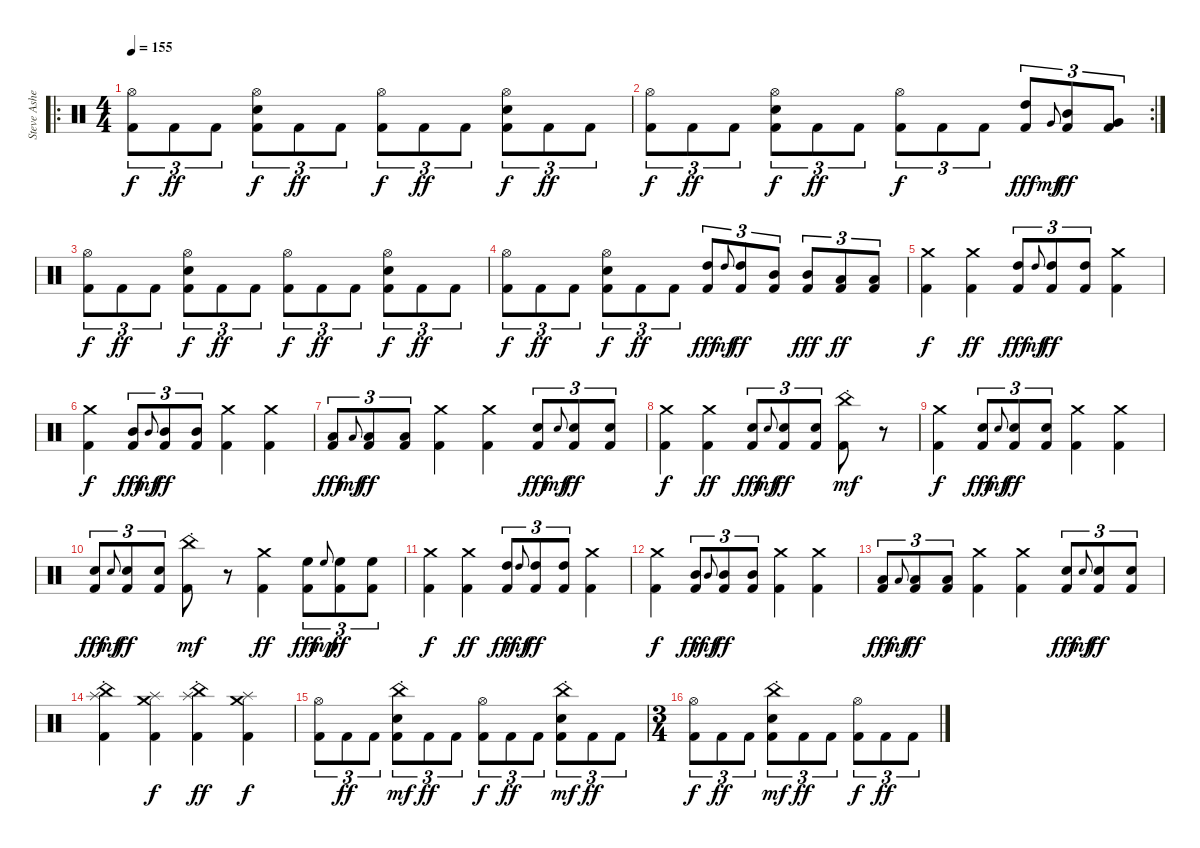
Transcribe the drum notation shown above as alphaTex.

\track ("Steve Asheim " "Steve Ashe") {instrument percussion}
\staff {score}
\articulation defaults
\ro
\ts (4 4)
\tempo 155
\clef neutral
\ks c
("Hi-Hat (open)" "Kick (hit) 2").8{tu (3 2) dy f} "Kick (hit) 2".8{tu (3 2) dy ff} "Kick (hit) 2".8{tu (3 2)} ("Electric Snare (hit)" "Hi-Hat (open)" "Kick (hit) 2").8{tu (3 2) dy f} "Kick (hit) 2".8{tu (3 2) dy ff} "Kick (hit) 2".8{tu (3 2)} ("Hi-Hat (open)" "Kick (hit) 2").8{tu (3 2) dy f} "Kick (hit) 2".8{tu (3 2) dy ff} "Kick (hit) 2".8{tu (3 2)} ("Electric Snare (hit)" "Hi-Hat (open)" "Kick (hit) 2").8{tu (3 2) dy f} "Kick (hit) 2".8{tu (3 2) dy ff} "Kick (hit) 2".8{tu (3 2)} |
\rc 2
("Hi-Hat (open)" "Kick (hit) 2").8{tu (3 2) dy f} "Kick (hit) 2".8{tu (3 2) dy ff} "Kick (hit) 2".8{tu (3 2)} ("Electric Snare (hit)" "Hi-Hat (open)" "Kick (hit) 2").8{tu (3 2) dy f} "Kick (hit) 2".8{tu (3 2) dy ff} "Kick (hit) 2".8{tu (3 2)} ("Hi-Hat (open)" "Kick (hit) 2").8{tu (3 2) dy f} "Kick (hit) 2".8{tu (3 2)} "Kick (hit) 2".8{tu (3 2)} ("High Tom (hit)" "Kick (hit) 2").8{tu (3 2) dy fff} "Very Low Tom (hit)".8{gr onbeat dy mf} ("Mid Tom (hit)" "Kick (hit) 2").8{tu (3 2) dy ff} ("Very Low Tom (hit)" "Kick (hit) 2").8{tu (3 2)} |
("Hi-Hat (open)" "Kick (hit) 2").8{tu (3 2) dy f} "Kick (hit) 2".8{tu (3 2) dy ff} "Kick (hit) 2".8{tu (3 2)} ("Electric Snare (hit)" "Hi-Hat (open)" "Kick (hit) 2").8{tu (3 2) dy f} "Kick (hit) 2".8{tu (3 2) dy ff} "Kick (hit) 2".8{tu (3 2)} ("Hi-Hat (open)" "Kick (hit) 2").8{tu (3 2) dy f} "Kick (hit) 2".8{tu (3 2) dy ff} "Kick (hit) 2".8{tu (3 2)} ("Electric Snare (hit)" "Hi-Hat (open)" "Kick (hit) 2").8{tu (3 2) dy f} "Kick (hit) 2".8{tu (3 2) dy ff} "Kick (hit) 2".8{tu (3 2)} |
("Hi-Hat (open)" "Kick (hit) 2").8{tu (3 2) dy f} "Kick (hit) 2".8{tu (3 2) dy ff} "Kick (hit) 2".8{tu (3 2)} ("Electric Snare (hit)" "Hi-Hat (open)" "Kick (hit) 2").8{tu (3 2) dy f} "Kick (hit) 2".8{tu (3 2) dy ff} "Kick (hit) 2".8{tu (3 2)} ("High Tom (hit)" "Kick (hit) 2").8{tu (3 2) dy fff} "High Tom (hit)".8{gr onbeat dy mf} ("High Tom (hit)" "Kick (hit) 2").8{tu (3 2) dy ff} ("Mid Tom (hit)" "Kick (hit) 2").8{tu (3 2)} ("Mid Tom (hit)" "Kick (hit) 2").8{tu (3 2) dy fff} ("Low Tom (hit)" "Kick (hit) 2").8{tu (3 2) dy ff} ("Low Tom (hit)" "Kick (hit) 2").8{tu (3 2)} |
("Crash medium (hit)" "Kick (hit) 2").4{dy f} ("Crash medium (hit)" "Kick (hit) 2").4{dy ff} ("High Tom (hit)" "Kick (hit) 2").8{tu (3 2) dy fff} "High Tom (hit)".8{gr onbeat dy mf} ("High Tom (hit)" "Kick (hit) 2").8{tu (3 2) dy ff} ("High Tom (hit)" "Kick (hit) 2").8{tu (3 2)} ("Crash medium (hit)" "Kick (hit) 2").4 |
("Crash medium (hit)" "Kick (hit) 2").4{dy f} ("Mid Tom (hit)" "Kick (hit) 2").8{tu (3 2) dy fff} "Mid Tom (hit)".8{gr onbeat dy mf} ("Mid Tom (hit)" "Kick (hit) 2").8{tu (3 2) dy ff} ("Mid Tom (hit)" "Kick (hit) 2").8{tu (3 2)} ("Crash medium (hit)" "Kick (hit) 2").4 ("Crash medium (hit)" "Kick (hit) 2").4 |
("Low Tom (hit)" "Kick (hit) 2").8{tu (3 2) dy fff} "Low Tom (hit)".8{gr onbeat dy mf} ("Low Tom (hit)" "Kick (hit) 2").8{tu (3 2) dy ff} ("Low Tom (hit)" "Kick (hit) 2").8{tu (3 2)} ("Crash medium (hit)" "Kick (hit) 2").4 ("Crash medium (hit)" "Kick (hit) 2").4 ("Electric Snare (hit)" "Kick (hit) 2").8{tu (3 2) dy fff} "Electric Snare (hit)".8{gr onbeat dy mf} ("Electric Snare (hit)" "Kick (hit) 2").8{tu (3 2) dy ff} ("Electric Snare (hit)" "Kick (hit) 2").8{tu (3 2)} |
("Crash medium (hit)" "Kick (hit) 2").4{dy f} ("Crash medium (hit)" "Kick (hit) 2").4{dy ff} ("Electric Snare (hit)" "Kick (hit) 2").8{tu (3 2) dy fff} "Electric Snare (hit)".8{gr onbeat dy mf} ("Electric Snare (hit)" "Kick (hit) 2").8{tu (3 2) dy ff} ("Electric Snare (hit)" "Kick (hit) 2").8{tu (3 2)} ("China (hit)"{st} "Kick (hit) 2").8{dy mf} r.8 |
("Crash medium (hit)" "Kick (hit) 2").4{dy f} ("Electric Snare (hit)" "Kick (hit) 2").8{tu (3 2) dy fff} "Electric Snare (hit)".8{gr onbeat dy mf} ("Electric Snare (hit)" "Kick (hit) 2").8{tu (3 2) dy ff} ("Electric Snare (hit)" "Kick (hit) 2").8{tu (3 2)} ("Crash medium (hit)" "Kick (hit) 2").4 ("Crash medium (hit)" "Kick (hit) 2").4 |
("Electric Snare (hit)" "Kick (hit) 2").8{tu (3 2) dy fff} "Electric Snare (hit)".8{gr onbeat dy mf} ("Electric Snare (hit)" "Kick (hit) 2").8{tu (3 2) dy ff} ("Electric Snare (hit)" "Kick (hit) 2").8{tu (3 2)} ("China (hit)"{st} "Kick (hit) 2").8{dy mf} r.8 ("Crash medium (hit)" "Kick (hit) 2").4{dy ff} ("High Floor Tom (hit)" "Kick (hit) 2").8{tu (3 2) dy fff} "High Floor Tom (hit)".8{gr onbeat dy mp} ("High Floor Tom (hit)" "Kick (hit) 2").8{tu (3 2) dy ff} ("High Floor Tom (hit)" "Kick (hit) 2").8{tu (3 2)} |
("Crash medium (hit)" "Kick (hit) 2").4{dy f} ("Crash medium (hit)" "Kick (hit) 2").4{dy ff} ("High Tom (hit)" "Kick (hit) 2").8{tu (3 2) dy fff} "High Tom (hit)".8{gr onbeat dy mf} ("High Tom (hit)" "Kick (hit) 2").8{tu (3 2) dy ff} ("High Tom (hit)" "Kick (hit) 2").8{tu (3 2)} ("Crash medium (hit)" "Kick (hit) 2").4 |
("Crash medium (hit)" "Kick (hit) 2").4{dy f} ("Mid Tom (hit)" "Kick (hit) 2").8{tu (3 2) dy fff} "Mid Tom (hit)".8{gr onbeat dy mf} ("Mid Tom (hit)" "Kick (hit) 2").8{tu (3 2) dy ff} ("Mid Tom (hit)" "Kick (hit) 2").8{tu (3 2)} ("Crash medium (hit)" "Kick (hit) 2").4 ("Crash medium (hit)" "Kick (hit) 2").4 |
("Low Tom (hit)" "Kick (hit) 2").8{tu (3 2) dy fff} "Low Tom (hit)".8{gr onbeat dy mf} ("Low Tom (hit)" "Kick (hit) 2").8{tu (3 2) dy ff} ("Low Tom (hit)" "Kick (hit) 2").8{tu (3 2)} ("Crash medium (hit)" "Kick (hit) 2").4 ("Crash medium (hit)" "Kick (hit) 2").4 ("Electric Snare (hit)" "Kick (hit) 2").8{tu (3 2) dy fff} "Electric Snare (hit)".8{gr onbeat dy mf} ("Electric Snare (hit)" "Kick (hit) 2").8{tu (3 2) dy ff} ("Electric Snare (hit)" "Kick (hit) 2").8{tu (3 2)} |
("Splash (hit)" "China (hit)"{st} "Kick (hit) 2").4 ("Crash medium (hit)" "Splash (hit)" "Kick (hit) 2").4{dy f} ("Splash (hit)" "China (hit)"{st} "Kick (hit) 2").4{dy ff} ("Crash medium (hit)" "Splash (hit)" "Kick (hit) 2").4{dy f} |
("Hi-Hat (open)" "Kick (hit) 2").8{tu (3 2)} "Kick (hit) 2".8{tu (3 2) dy ff} "Kick (hit) 2".8{tu (3 2)} ("Electric Snare (hit)" "China (hit)"{st} "Kick (hit) 2").8{tu (3 2) dy mf} "Kick (hit) 2".8{tu (3 2) dy ff} "Kick (hit) 2".8{tu (3 2)} ("Hi-Hat (open)" "Kick (hit) 2").8{tu (3 2) dy f} "Kick (hit) 2".8{tu (3 2) dy ff} "Kick (hit) 2".8{tu (3 2)} ("Electric Snare (hit)" "China (hit)"{st} "Kick (hit) 2").8{tu (3 2) dy mf} "Kick (hit) 2".8{tu (3 2) dy ff} "Kick (hit) 2".8{tu (3 2)} |
\ts (3 4)
("Hi-Hat (open)" "Kick (hit) 2").8{tu (3 2) dy f} "Kick (hit) 2".8{tu (3 2) dy ff} "Kick (hit) 2".8{tu (3 2)} ("Electric Snare (hit)" "China (hit)"{st} "Kick (hit) 2").8{tu (3 2) dy mf} "Kick (hit) 2".8{tu (3 2) dy ff} "Kick (hit) 2".8{tu (3 2)} ("Hi-Hat (open)" "Kick (hit) 2").8{tu (3 2) dy f} "Kick (hit) 2".8{tu (3 2) dy ff} "Kick (hit) 2".8{tu (3 2)}
